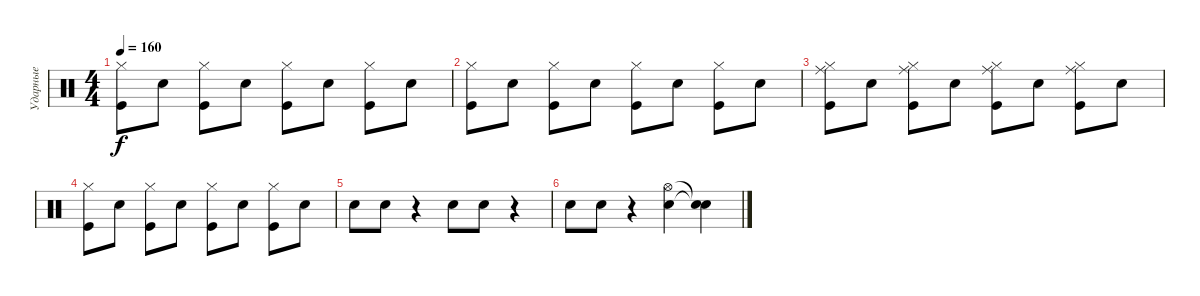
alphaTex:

\track ("Ударные" "Ударные") {instrument percussion}
\staff {score}
\articulation defaults
\ts (4 4)
\tempo 160
\clef neutral
\ks c
("Hi-Hat (closed)" "Kick (hit)").8{dy f} "Snare (hit) 2".8 ("Hi-Hat (closed)" "Kick (hit)").8 "Snare (hit) 2".8 ("Hi-Hat (closed)" "Kick (hit)").8 "Snare (hit) 2".8 ("Hi-Hat (closed)" "Kick (hit)").8 "Snare (hit) 2".8 |
("Hi-Hat (closed)" "Kick (hit)").8 "Snare (hit) 2".8 ("Hi-Hat (closed)" "Kick (hit)").8 "Snare (hit) 2".8 ("Hi-Hat (closed)" "Kick (hit)").8 "Snare (hit) 2".8 ("Hi-Hat (closed)" "Kick (hit)").8 "Snare (hit) 2".8 |
("Hi-Hat (closed)" "Kick (hit)" "Ride (middle)").8 "Snare (hit) 2".8 ("Hi-Hat (closed)" "Kick (hit)" "Ride (middle)").8 "Snare (hit) 2".8 ("Hi-Hat (closed)" "Kick (hit)" "Ride (middle)").8 "Snare (hit) 2".8 ("Hi-Hat (closed)" "Kick (hit)" "Ride (middle)").8 "Snare (hit) 2".8 |
("Hi-Hat (closed)" "Kick (hit)").8 "Snare (hit) 2".8 ("Hi-Hat (closed)" "Kick (hit)").8 "Snare (hit) 2".8 ("Hi-Hat (closed)" "Kick (hit)").8 "Snare (hit) 2".8 ("Hi-Hat (closed)" "Kick (hit)").8 "Snare (hit) 2".8 |
"Electric Snare (hit)".8 "Electric Snare (hit)".8 r.4 "Electric Snare (hit)".8 "Electric Snare (hit)".8 r.4 |
"Electric Snare (hit)".8 "Electric Snare (hit)".8 r.4 ("Electric Snare (hit)" "Hi-Hat (open)").4 ("Snare (hit)"{t} "Snare (hit)"{t}).4
